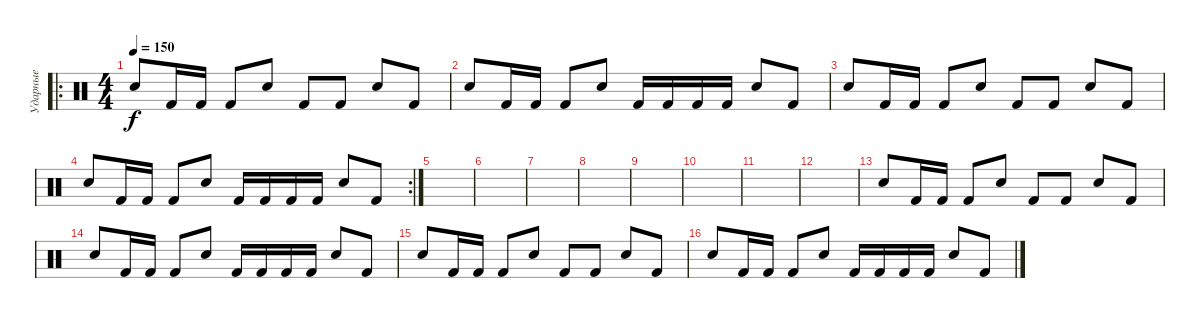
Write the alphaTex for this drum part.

\track ("Ударные" "Ударные") {instrument percussion}
\staff {score}
\articulation defaults
\ro
\ts (4 4)
\tempo 150
\clef neutral
\ks c "Snare (hit) 2".8{dy f} "Kick (hit) 2".16 "Kick (hit) 2".16 "Kick (hit) 2".8 "Hand Clap (hit)".8 "Kick (hit) 2".8 "Kick (hit) 2".8 "Hand Clap (hit)".8 "Kick (hit) 2".8
|
"Snare (hit) 2".8 "Kick (hit) 2".16 "Kick (hit) 2".16 "Kick (hit) 2".8 "Hand Clap (hit)".8 "Kick (hit) 2".16 "Kick (hit) 2".16 "Kick (hit) 2".16 "Kick (hit) 2".16 "Hand Clap (hit)".8 "Kick (hit) 2".8 |
"Snare (hit) 2".8 "Kick (hit) 2".16 "Kick (hit) 2".16 "Kick (hit) 2".8 "Hand Clap (hit)".8 "Kick (hit) 2".8 "Kick (hit) 2".8 "Hand Clap (hit)".8 "Kick (hit) 2".8 |
\rc 2 "Snare (hit) 2".8 "Kick (hit) 2".16 "Kick (hit) 2".16 "Kick (hit) 2".8 "Hand Clap (hit)".8 "Kick (hit) 2".16 "Kick (hit) 2".16 "Kick (hit) 2".16 "Kick (hit) 2".16 "Hand Clap (hit)".8 "Kick (hit) 2".8
|
|
|
|
|
|
|
|
|
"Snare (hit) 2".8 "Kick (hit) 2".16 "Kick (hit) 2".16 "Kick (hit) 2".8 "Hand Clap (hit)".8 "Kick (hit) 2".8 "Kick (hit) 2".8 "Hand Clap (hit)".8 "Kick (hit) 2".8 |
"Snare (hit) 2".8 "Kick (hit) 2".16 "Kick (hit) 2".16 "Kick (hit) 2".8 "Hand Clap (hit)".8 "Kick (hit) 2".16 "Kick (hit) 2".16 "Kick (hit) 2".16 "Kick (hit) 2".16 "Hand Clap (hit)".8 "Kick (hit) 2".8 |
"Snare (hit) 2".8 "Kick (hit) 2".16 "Kick (hit) 2".16 "Kick (hit) 2".8 "Hand Clap (hit)".8 "Kick (hit) 2".8 "Kick (hit) 2".8 "Hand Clap (hit)".8 "Kick (hit) 2".8 |
"Snare (hit) 2".8 "Kick (hit) 2".16 "Kick (hit) 2".16 "Kick (hit) 2".8 "Hand Clap (hit)".8 "Kick (hit) 2".16 "Kick (hit) 2".16 "Kick (hit) 2".16 "Kick (hit) 2".16 "Hand Clap (hit)".8 "Kick (hit) 2".8
